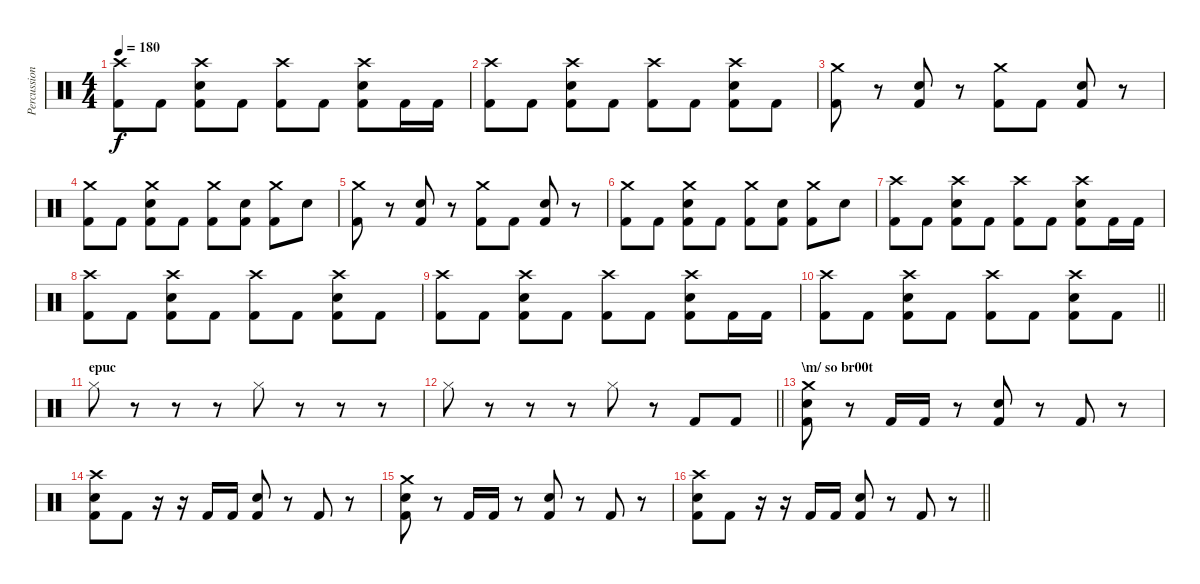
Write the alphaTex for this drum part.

\track ("Percussion" "Percussion") {instrument percussion}
\staff {score}
\articulation defaults
\ts (4 4)
\tempo 180
\clef neutral
\ks c
("Crash high (hit)" "Kick (hit) 2").8{dy f} "Kick (hit) 2".8 ("Crash high (hit)" "Electric Snare (hit)" "Kick (hit) 2").8 "Kick (hit) 2".8 ("Crash high (hit)" "Kick (hit) 2").8 "Kick (hit) 2".8 ("Crash high (hit)" "Electric Snare (hit)" "Kick (hit) 2").8 "Kick (hit) 2".16 "Kick (hit) 2".16 |
("Crash high (hit)" "Kick (hit) 2").8 "Kick (hit) 2".8 ("Crash high (hit)" "Electric Snare (hit)" "Kick (hit) 2").8 "Kick (hit) 2".8 ("Crash high (hit)" "Kick (hit) 2").8 "Kick (hit) 2".8 ("Crash high (hit)" "Electric Snare (hit)" "Kick (hit) 2").8 "Kick (hit) 2".8 |
("Crash medium (hit)" "Kick (hit) 2").8 r.8 ("Electric Snare (hit)" "Kick (hit) 2").8 r.8 ("Crash medium (hit)" "Kick (hit) 2").8 "Kick (hit) 2".8 ("Electric Snare (hit)" "Kick (hit) 2").8 r.8 |
("Crash medium (hit)" "Kick (hit) 2").8 "Kick (hit) 2".8 ("Crash medium (hit)" "Electric Snare (hit)" "Kick (hit) 2").8 "Kick (hit) 2".8 ("Crash medium (hit)" "Kick (hit) 2").8 ("Electric Snare (hit)" "Kick (hit) 2").8 ("Crash medium (hit)" "Kick (hit) 2").8 "Electric Snare (hit)".8 |
("Crash medium (hit)" "Kick (hit) 2").8 r.8 ("Electric Snare (hit)" "Kick (hit) 2").8 r.8 ("Crash medium (hit)" "Kick (hit) 2").8 "Kick (hit) 2".8 ("Electric Snare (hit)" "Kick (hit) 2").8 r.8 |
("Crash medium (hit)" "Kick (hit) 2").8 "Kick (hit) 2".8 ("Crash medium (hit)" "Electric Snare (hit)" "Kick (hit) 2").8 "Kick (hit) 2".8 ("Crash medium (hit)" "Kick (hit) 2").8 ("Electric Snare (hit)" "Kick (hit) 2").8 ("Crash medium (hit)" "Kick (hit) 2").8 "Electric Snare (hit)".8 |
("Crash high (hit)" "Kick (hit) 2").8 "Kick (hit) 2".8 ("Crash high (hit)" "Electric Snare (hit)" "Kick (hit) 2").8 "Kick (hit) 2".8 ("Crash high (hit)" "Kick (hit) 2").8 "Kick (hit) 2".8 ("Crash high (hit)" "Electric Snare (hit)" "Kick (hit) 2").8 "Kick (hit) 2".16 "Kick (hit) 2".16 |
("Crash high (hit)" "Kick (hit) 2").8 "Kick (hit) 2".8 ("Crash high (hit)" "Electric Snare (hit)" "Kick (hit) 2").8 "Kick (hit) 2".8 ("Crash high (hit)" "Kick (hit) 2").8 "Kick (hit) 2".8 ("Crash high (hit)" "Electric Snare (hit)" "Kick (hit) 2").8 "Kick (hit) 2".8 |
("Crash high (hit)" "Kick (hit) 2").8 "Kick (hit) 2".8 ("Crash high (hit)" "Electric Snare (hit)" "Kick (hit) 2").8 "Kick (hit) 2".8 ("Crash high (hit)" "Kick (hit) 2").8 "Kick (hit) 2".8 ("Crash high (hit)" "Electric Snare (hit)" "Kick (hit) 2").8 "Kick (hit) 2".16 "Kick (hit) 2".16 |
\barLineRight lightlight
("Crash high (hit)" "Kick (hit) 2").8 "Kick (hit) 2".8 ("Crash high (hit)" "Electric Snare (hit)" "Kick (hit) 2").8 "Kick (hit) 2".8 ("Crash high (hit)" "Kick (hit) 2").8 "Kick (hit) 2".8 ("Crash high (hit)" "Electric Snare (hit)" "Kick (hit) 2").8 "Kick (hit) 2".8 |
\section ("" "epuc")
"Hi-Hat (closed)".8 r.8 r.8 r.8 "Hi-Hat (closed)".8 r.8 r.8 r.8 |
\barLineRight lightlight "Hi-Hat (closed)".8
r.8 r.8 r.8 "Hi-Hat (closed)".8 r.8 "Kick (hit) 2".8 "Kick (hit) 2".8 |
\section ("" "\\m/ so br00t")
("Crash medium (hit)" "Electric Snare (hit)" "Kick (hit) 2").8 r.8 "Kick (hit) 2".16 "Kick (hit) 2".16 r.8 ("Electric Snare (hit)" "Kick (hit) 2").8 r.8 "Kick (hit) 2".8 r.8 |
("Crash high (hit)" "Electric Snare (hit)" "Kick (hit) 2").8 "Kick (hit) 2".8 r.16 r.16 "Kick (hit) 2".16 "Kick (hit) 2".16 ("Electric Snare (hit)" "Kick (hit) 2").8 r.8 "Kick (hit) 2".8 r.8 |
("Crash medium (hit)" "Electric Snare (hit)" "Kick (hit) 2").8 r.8 "Kick (hit) 2".16 "Kick (hit) 2".16 r.8 ("Electric Snare (hit)" "Kick (hit) 2").8 r.8 "Kick (hit) 2".8 r.8 |
\barLineRight lightlight
("Crash high (hit)" "Electric Snare (hit)" "Kick (hit) 2").8 "Kick (hit) 2".8 r.16 r.16 "Kick (hit) 2".16 "Kick (hit) 2".16 ("Electric Snare (hit)" "Kick (hit) 2").8 r.8 "Kick (hit) 2".8 r.8
